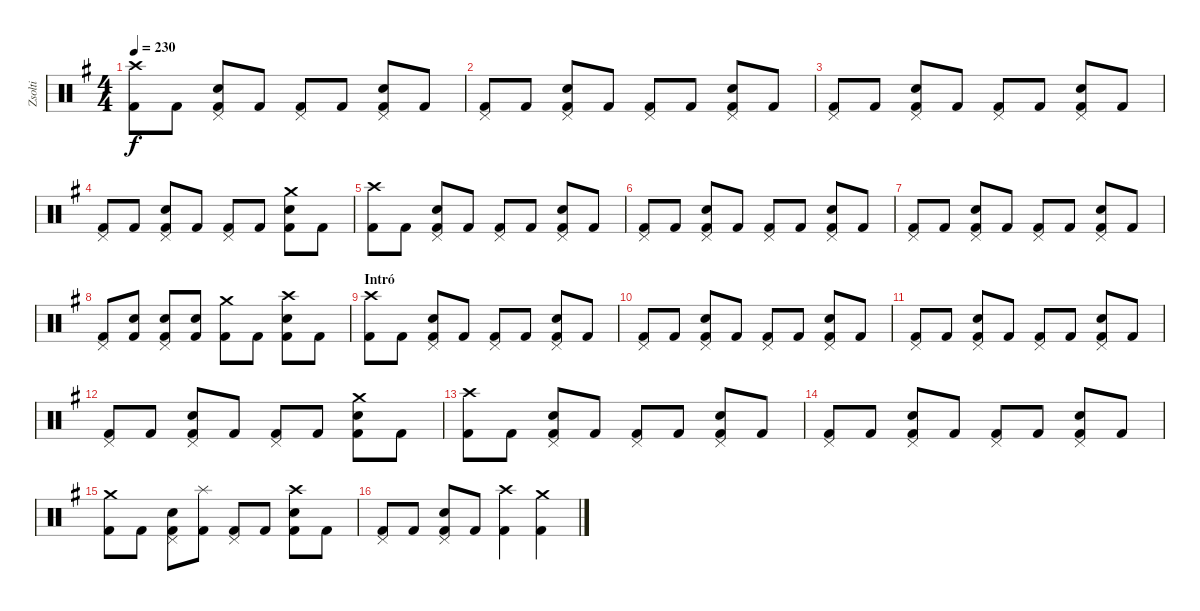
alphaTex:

\track ("Zsolti" "Zsolti") {instrument percussion}
\staff {score}
\articulation defaults
\ts (4 4)
\tempo 230
\clef neutral
\ks eminor
("Crash high (hit)" "Kick (hit) 2").8{dy f} "Kick (hit) 2".8 ("Pedal Hi-Hat (hit)" "Snare (hit) 2" "Kick (hit) 2").8 "Kick (hit) 2".8 ("Pedal Hi-Hat (hit)" "Kick (hit) 2").8 "Kick (hit) 2".8 ("Pedal Hi-Hat (hit)" "Snare (hit) 2" "Kick (hit) 2").8 "Kick (hit) 2".8 |
("Pedal Hi-Hat (hit)" "Kick (hit) 2").8 "Kick (hit) 2".8 ("Pedal Hi-Hat (hit)" "Snare (hit) 2" "Kick (hit) 2").8 "Kick (hit) 2".8 ("Pedal Hi-Hat (hit)" "Kick (hit) 2").8 "Kick (hit) 2".8 ("Pedal Hi-Hat (hit)" "Snare (hit) 2" "Kick (hit) 2").8 "Kick (hit) 2".8 |
("Pedal Hi-Hat (hit)" "Kick (hit) 2").8 "Kick (hit) 2".8 ("Pedal Hi-Hat (hit)" "Snare (hit) 2" "Kick (hit) 2").8 "Kick (hit) 2".8 ("Pedal Hi-Hat (hit)" "Kick (hit) 2").8 "Kick (hit) 2".8 ("Pedal Hi-Hat (hit)" "Snare (hit) 2" "Kick (hit) 2").8 "Kick (hit) 2".8 |
("Pedal Hi-Hat (hit)" "Kick (hit) 2").8 "Kick (hit) 2".8 ("Pedal Hi-Hat (hit)" "Snare (hit) 2" "Kick (hit) 2").8 "Kick (hit) 2".8 ("Pedal Hi-Hat (hit)" "Kick (hit) 2").8 "Kick (hit) 2".8 ("Crash medium (hit)" "Snare (hit) 2" "Kick (hit) 2").8 "Kick (hit) 2".8 |
("Crash high (hit)" "Kick (hit) 2").8 "Kick (hit) 2".8 ("Pedal Hi-Hat (hit)" "Snare (hit) 2" "Kick (hit) 2").8 "Kick (hit) 2".8 ("Pedal Hi-Hat (hit)" "Kick (hit) 2").8 "Kick (hit) 2".8 ("Pedal Hi-Hat (hit)" "Snare (hit) 2" "Kick (hit) 2").8 "Kick (hit) 2".8 |
("Pedal Hi-Hat (hit)" "Kick (hit) 2").8 "Kick (hit) 2".8 ("Pedal Hi-Hat (hit)" "Snare (hit) 2" "Kick (hit) 2").8 "Kick (hit) 2".8 ("Pedal Hi-Hat (hit)" "Kick (hit) 2").8 "Kick (hit) 2".8 ("Pedal Hi-Hat (hit)" "Snare (hit) 2" "Kick (hit) 2").8 "Kick (hit) 2".8 |
("Pedal Hi-Hat (hit)" "Kick (hit) 2").8 "Kick (hit) 2".8 ("Pedal Hi-Hat (hit)" "Snare (hit) 2" "Kick (hit) 2").8 "Kick (hit) 2".8 ("Pedal Hi-Hat (hit)" "Kick (hit) 2").8 "Kick (hit) 2".8 ("Pedal Hi-Hat (hit)" "Snare (hit) 2" "Kick (hit) 2").8 "Kick (hit) 2".8 |
("Pedal Hi-Hat (hit)" "Kick (hit) 2").8 ("Snare (hit) 2" "Kick (hit) 2").8 ("Pedal Hi-Hat (hit)" "Snare (hit) 2" "Kick (hit) 2").8 ("Snare (hit) 2" "Kick (hit) 2").8 ("Crash medium (hit)" "Kick (hit) 2").8 "Kick (hit) 2".8 ("Crash high (hit)" "Snare (hit) 2" "Kick (hit) 2").8 "Kick (hit) 2".8 |
\section ("" "Intró")
("Crash high (hit)" "Kick (hit) 2").8 "Kick (hit) 2".8 ("Pedal Hi-Hat (hit)" "Snare (hit) 2" "Kick (hit) 2").8 "Kick (hit) 2".8 ("Pedal Hi-Hat (hit)" "Kick (hit) 2").8 "Kick (hit) 2".8 ("Pedal Hi-Hat (hit)" "Snare (hit) 2" "Kick (hit) 2").8 "Kick (hit) 2".8 |
("Pedal Hi-Hat (hit)" "Kick (hit) 2").8 "Kick (hit) 2".8 ("Pedal Hi-Hat (hit)" "Snare (hit) 2" "Kick (hit) 2").8 "Kick (hit) 2".8 ("Pedal Hi-Hat (hit)" "Kick (hit) 2").8 "Kick (hit) 2".8 ("Pedal Hi-Hat (hit)" "Snare (hit) 2" "Kick (hit) 2").8 "Kick (hit) 2".8 |
("Pedal Hi-Hat (hit)" "Kick (hit) 2").8 "Kick (hit) 2".8 ("Pedal Hi-Hat (hit)" "Snare (hit) 2" "Kick (hit) 2").8 "Kick (hit) 2".8 ("Pedal Hi-Hat (hit)" "Kick (hit) 2").8 "Kick (hit) 2".8 ("Pedal Hi-Hat (hit)" "Snare (hit) 2" "Kick (hit) 2").8 "Kick (hit) 2".8 |
("Pedal Hi-Hat (hit)" "Kick (hit) 2").8 "Kick (hit) 2".8 ("Pedal Hi-Hat (hit)" "Snare (hit) 2" "Kick (hit) 2").8 "Kick (hit) 2".8 ("Pedal Hi-Hat (hit)" "Kick (hit) 2").8 "Kick (hit) 2".8 ("Crash medium (hit)" "Snare (hit) 2" "Kick (hit) 2").8 "Kick (hit) 2".8 |
("Crash high (hit)" "Kick (hit) 2").8 "Kick (hit) 2".8 ("Pedal Hi-Hat (hit)" "Snare (hit) 2" "Kick (hit) 2").8 "Kick (hit) 2".8 ("Pedal Hi-Hat (hit)" "Kick (hit) 2").8 "Kick (hit) 2".8 ("Pedal Hi-Hat (hit)" "Snare (hit) 2" "Kick (hit) 2").8 "Kick (hit) 2".8 |
("Pedal Hi-Hat (hit)" "Kick (hit) 2").8 "Kick (hit) 2".8 ("Pedal Hi-Hat (hit)" "Snare (hit) 2" "Kick (hit) 2").8 "Kick (hit) 2".8 ("Pedal Hi-Hat (hit)" "Kick (hit) 2").8 "Kick (hit) 2".8 ("Pedal Hi-Hat (hit)" "Snare (hit) 2" "Kick (hit) 2").8 "Kick (hit) 2".8 |
("Crash medium (hit)" "Kick (hit) 2").8 "Kick (hit) 2".8 ("Pedal Hi-Hat (hit)" "Snare (hit) 2" "Kick (hit) 2").8 ("Splash (hit)" "Kick (hit) 2").8 ("Pedal Hi-Hat (hit)" "Kick (hit) 2").8 "Kick (hit) 2".8 ("Crash high (hit)" "Snare (hit) 2" "Kick (hit) 2").8 "Kick (hit) 2".8 |
("Pedal Hi-Hat (hit)" "Kick (hit) 2").8 "Kick (hit) 2".8 ("Pedal Hi-Hat (hit)" "Snare (hit) 2" "Kick (hit) 2").8 "Kick (hit) 2".8 ("Crash high (hit)" "Kick (hit) 2").4 ("Crash medium (hit)" "Kick (hit) 2").4
